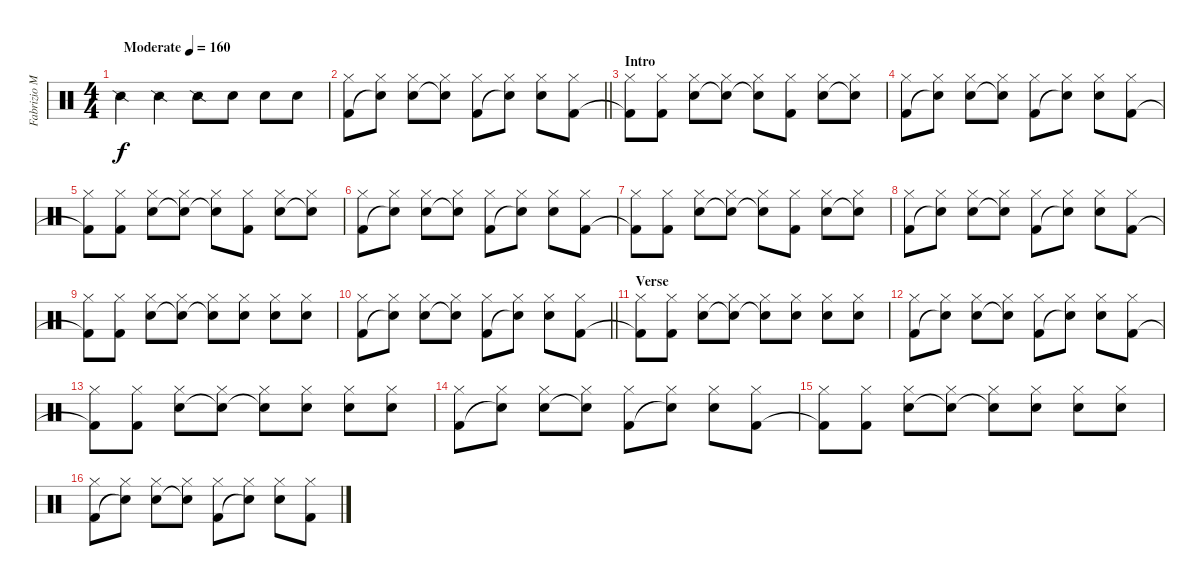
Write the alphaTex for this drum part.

\track ("Fabrizio Moretti" "Fabrizio M") {instrument percussion}
\staff {score}
\articulation defaults
\ts (4 4)
\tempo (160 "Moderate")
\clef neutral
\ks c "Snare (side stick) 2".4{dy f} "Snare (side stick) 2".4 "Snare (side stick) 2".8 "Electric Snare (hit)".8 "Electric Snare (hit)".8 "Electric Snare (hit)".8
|
\barLineRight lightlight
("Hi-Hat (closed)" "Kick (hit) 2").8 ("Hi-Hat (closed)" "Snare (hit)"{t}).8 ("Hi-Hat (closed)" "Electric Snare (hit)").8 ("Hi-Hat (closed)" "Snare (hit)"{t}).8 ("Hi-Hat (closed)" "Kick (hit) 2").8 ("Hi-Hat (closed)" "Snare (hit)"{t}).8 ("Hi-Hat (closed)" "Electric Snare (hit)").8 ("Hi-Hat (closed)" "Kick (hit) 2").8 |
\section ("" "Intro")
("Hi-Hat (closed)" "Kick (hit) 2"{t}).8 ("Hi-Hat (closed)" "Kick (hit) 2").8 ("Hi-Hat (closed)" "Electric Snare (hit)").8 ("Hi-Hat (closed)" "Snare (hit)"{t}).8 ("Hi-Hat (closed)" "Snare (hit)"{t}).8 ("Hi-Hat (closed)" "Kick (hit) 2").8 ("Hi-Hat (closed)" "Electric Snare (hit)").8 ("Hi-Hat (closed)" "Snare (hit)"{t}).8 |
("Hi-Hat (closed)" "Kick (hit) 2").8 ("Hi-Hat (closed)" "Snare (hit)"{t}).8 ("Hi-Hat (closed)" "Electric Snare (hit)").8 ("Hi-Hat (closed)" "Snare (hit)"{t}).8 ("Hi-Hat (closed)" "Kick (hit) 2").8 ("Hi-Hat (closed)" "Snare (hit)"{t}).8 ("Hi-Hat (closed)" "Electric Snare (hit)").8 ("Hi-Hat (closed)" "Kick (hit) 2").8 |
("Hi-Hat (closed)" "Kick (hit) 2"{t}).8 ("Hi-Hat (closed)" "Kick (hit) 2").8 ("Hi-Hat (closed)" "Electric Snare (hit)").8 ("Hi-Hat (closed)" "Snare (hit)"{t}).8 ("Hi-Hat (closed)" "Snare (hit)"{t}).8 ("Hi-Hat (closed)" "Kick (hit) 2").8 ("Hi-Hat (closed)" "Electric Snare (hit)").8 ("Hi-Hat (closed)" "Snare (hit)"{t}).8 |
("Hi-Hat (closed)" "Kick (hit) 2").8 ("Hi-Hat (closed)" "Snare (hit)"{t}).8 ("Hi-Hat (closed)" "Electric Snare (hit)").8 ("Hi-Hat (closed)" "Snare (hit)"{t}).8 ("Hi-Hat (closed)" "Kick (hit) 2").8 ("Hi-Hat (closed)" "Snare (hit)"{t}).8 ("Hi-Hat (closed)" "Electric Snare (hit)").8 ("Hi-Hat (closed)" "Kick (hit) 2").8 |
("Hi-Hat (closed)" "Kick (hit) 2"{t}).8 ("Hi-Hat (closed)" "Kick (hit) 2").8 ("Hi-Hat (closed)" "Electric Snare (hit)").8 ("Hi-Hat (closed)" "Snare (hit)"{t}).8 ("Hi-Hat (closed)" "Snare (hit)"{t}).8 ("Hi-Hat (closed)" "Kick (hit) 2").8 ("Hi-Hat (closed)" "Electric Snare (hit)").8 ("Hi-Hat (closed)" "Snare (hit)"{t}).8 |
("Hi-Hat (closed)" "Kick (hit) 2").8 ("Hi-Hat (closed)" "Snare (hit)"{t}).8 ("Hi-Hat (closed)" "Electric Snare (hit)").8 ("Hi-Hat (closed)" "Snare (hit)"{t}).8 ("Hi-Hat (closed)" "Kick (hit) 2").8 ("Hi-Hat (closed)" "Snare (hit)"{t}).8 ("Hi-Hat (closed)" "Electric Snare (hit)").8 ("Hi-Hat (closed)" "Kick (hit) 2").8 |
("Hi-Hat (closed)" "Kick (hit) 2"{t}).8 ("Hi-Hat (closed)" "Kick (hit) 2").8 ("Hi-Hat (closed)" "Electric Snare (hit)").8 ("Hi-Hat (closed)" "Snare (hit)"{t}).8 ("Hi-Hat (closed)" "Snare (hit)"{t}).8 ("Hi-Hat (closed)" "Electric Snare (hit)").8 ("Hi-Hat (closed)" "Electric Snare (hit)").8 ("Hi-Hat (closed)" "Electric Snare (hit)").8 |
\barLineRight lightlight
("Hi-Hat (closed)" "Kick (hit) 2").8 ("Hi-Hat (closed)" "Snare (hit)"{t}).8 ("Hi-Hat (closed)" "Electric Snare (hit)").8 ("Hi-Hat (closed)" "Snare (hit)"{t}).8 ("Hi-Hat (closed)" "Kick (hit) 2").8 ("Hi-Hat (closed)" "Snare (hit)"{t}).8 ("Hi-Hat (closed)" "Electric Snare (hit)").8 ("Hi-Hat (closed)" "Kick (hit) 2").8 |
\section ("" "Verse")
("Hi-Hat (closed)" "Kick (hit) 2"{t}).8 ("Hi-Hat (closed)" "Kick (hit) 2").8 ("Hi-Hat (closed)" "Electric Snare (hit)").8 ("Hi-Hat (closed)" "Snare (hit)"{t}).8 ("Hi-Hat (closed)" "Snare (hit)"{t}).8 ("Hi-Hat (closed)" "Electric Snare (hit)").8 ("Hi-Hat (closed)" "Electric Snare (hit)").8 ("Hi-Hat (closed)" "Electric Snare (hit)").8 |
("Hi-Hat (closed)" "Kick (hit) 2").8 ("Hi-Hat (closed)" "Snare (hit)"{t}).8 ("Hi-Hat (closed)" "Electric Snare (hit)").8 ("Hi-Hat (closed)" "Snare (hit)"{t}).8 ("Hi-Hat (closed)" "Kick (hit) 2").8 ("Hi-Hat (closed)" "Snare (hit)"{t}).8 ("Hi-Hat (closed)" "Electric Snare (hit)").8 ("Hi-Hat (closed)" "Kick (hit) 2").8 |
("Hi-Hat (closed)" "Kick (hit) 2"{t}).8 ("Hi-Hat (closed)" "Kick (hit) 2").8 ("Hi-Hat (closed)" "Electric Snare (hit)").8 ("Hi-Hat (closed)" "Snare (hit)"{t}).8 ("Hi-Hat (closed)" "Snare (hit)"{t}).8 ("Hi-Hat (closed)" "Electric Snare (hit)").8 ("Hi-Hat (closed)" "Electric Snare (hit)").8 ("Hi-Hat (closed)" "Electric Snare (hit)").8 |
("Hi-Hat (closed)" "Kick (hit) 2").8 ("Hi-Hat (closed)" "Snare (hit)"{t}).8 ("Hi-Hat (closed)" "Electric Snare (hit)").8 ("Hi-Hat (closed)" "Snare (hit)"{t}).8 ("Hi-Hat (closed)" "Kick (hit) 2").8 ("Hi-Hat (closed)" "Snare (hit)"{t}).8 ("Hi-Hat (closed)" "Electric Snare (hit)").8 ("Hi-Hat (closed)" "Kick (hit) 2").8 |
("Hi-Hat (closed)" "Kick (hit) 2"{t}).8 ("Hi-Hat (closed)" "Kick (hit) 2").8 ("Hi-Hat (closed)" "Electric Snare (hit)").8 ("Hi-Hat (closed)" "Snare (hit)"{t}).8 ("Hi-Hat (closed)" "Snare (hit)"{t}).8 ("Hi-Hat (closed)" "Electric Snare (hit)").8 ("Hi-Hat (closed)" "Electric Snare (hit)").8 ("Hi-Hat (closed)" "Electric Snare (hit)").8 |
("Hi-Hat (closed)" "Kick (hit) 2").8 ("Hi-Hat (closed)" "Snare (hit)"{t}).8 ("Hi-Hat (closed)" "Electric Snare (hit)").8 ("Hi-Hat (closed)" "Snare (hit)"{t}).8 ("Hi-Hat (closed)" "Kick (hit) 2").8 ("Hi-Hat (closed)" "Snare (hit)"{t}).8 ("Hi-Hat (closed)" "Electric Snare (hit)").8 ("Hi-Hat (closed)" "Kick (hit) 2").8
